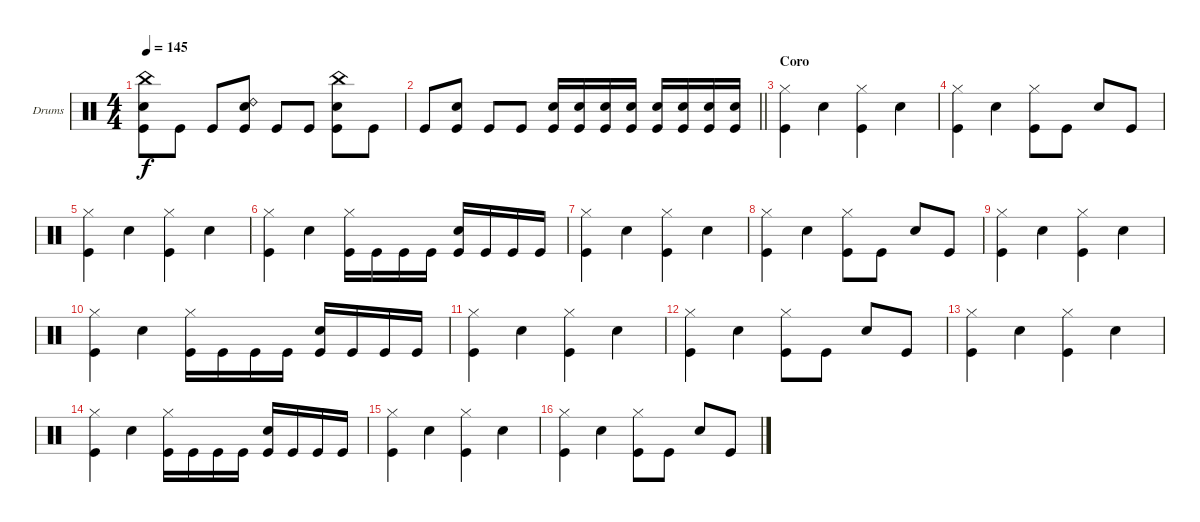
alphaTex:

\bracketExtendMode groupsimilarinstruments
\firstSystemTrackNameOrientation horizontal
\otherSystemsTrackNameOrientation horizontal
\track ("Drumkit" "Drums") {instrument percussion}
\staff {score}
\articulation defaults
\ts (4 4)
\tempo 145
\clef neutral
\ks c
("China (hit)" "Snare (hit) 2" "Kick (hit)").8{dy f} "Kick (hit)".8 "Kick (hit)".8 ("Ride (bell) 2" "Snare (hit) 2" "Kick (hit)").8 "Kick (hit)".8 "Kick (hit)".8 ("China (hit)" "Snare (hit) 2" "Kick (hit)").8 "Kick (hit)".8 |
\barLineRight lightlight "Kick (hit)".8
("Snare (hit) 2" "Kick (hit)").8 "Kick (hit)".8 "Kick (hit)".8 ("Snare (hit) 2" "Kick (hit)").16 ("Snare (hit) 2" "Kick (hit)").16 ("Snare (hit) 2" "Kick (hit)").16 ("Snare (hit) 2" "Kick (hit)").16 ("Snare (hit) 2" "Kick (hit)").16 ("Snare (hit) 2" "Kick (hit)").16 ("Snare (hit) 2" "Kick (hit)").16 ("Snare (hit) 2" "Kick (hit)").16 |
\section ("" "Coro")
("Hi-Hat (closed)" "Kick (hit)").4 "Snare (hit) 2".4 ("Hi-Hat (closed)" "Kick (hit)").4 "Snare (hit) 2".4 |
("Hi-Hat (closed)" "Kick (hit)").4 "Snare (hit) 2".4 ("Hi-Hat (closed)" "Kick (hit)").8 "Kick (hit)".8 "Snare (hit) 2".8 "Kick (hit)".8 |
("Hi-Hat (closed)" "Kick (hit)").4 "Snare (hit) 2".4 ("Hi-Hat (closed)" "Kick (hit)").4 "Snare (hit) 2".4 |
("Hi-Hat (closed)" "Kick (hit)").4 "Snare (hit) 2".4 ("Hi-Hat (closed)" "Kick (hit)").16 "Kick (hit)".16 "Kick (hit)".16 "Kick (hit)".16 ("Snare (hit) 2" "Kick (hit)").16 "Kick (hit)".16 "Kick (hit)".16 "Kick (hit)".16 |
("Hi-Hat (closed)" "Kick (hit)").4 "Snare (hit) 2".4 ("Hi-Hat (closed)" "Kick (hit)").4 "Snare (hit) 2".4 |
("Hi-Hat (closed)" "Kick (hit)").4 "Snare (hit) 2".4 ("Hi-Hat (closed)" "Kick (hit)").8 "Kick (hit)".8 "Snare (hit) 2".8 "Kick (hit)".8 |
("Hi-Hat (closed)" "Kick (hit)").4 "Snare (hit) 2".4 ("Hi-Hat (closed)" "Kick (hit)").4 "Snare (hit) 2".4 |
("Hi-Hat (closed)" "Kick (hit)").4 "Snare (hit) 2".4 ("Hi-Hat (closed)" "Kick (hit)").16 "Kick (hit)".16 "Kick (hit)".16 "Kick (hit)".16 ("Snare (hit) 2" "Kick (hit)").16 "Kick (hit)".16 "Kick (hit)".16 "Kick (hit)".16 |
("Hi-Hat (closed)" "Kick (hit)").4 "Snare (hit) 2".4 ("Hi-Hat (closed)" "Kick (hit)").4 "Snare (hit) 2".4 |
("Hi-Hat (closed)" "Kick (hit)").4 "Snare (hit) 2".4 ("Hi-Hat (closed)" "Kick (hit)").8 "Kick (hit)".8 "Snare (hit) 2".8 "Kick (hit)".8 |
("Hi-Hat (closed)" "Kick (hit)").4 "Snare (hit) 2".4 ("Hi-Hat (closed)" "Kick (hit)").4 "Snare (hit) 2".4 |
("Hi-Hat (closed)" "Kick (hit)").4 "Snare (hit) 2".4 ("Hi-Hat (closed)" "Kick (hit)").16 "Kick (hit)".16 "Kick (hit)".16 "Kick (hit)".16 ("Snare (hit) 2" "Kick (hit)").16 "Kick (hit)".16 "Kick (hit)".16 "Kick (hit)".16 |
("Hi-Hat (closed)" "Kick (hit)").4 "Snare (hit) 2".4 ("Hi-Hat (closed)" "Kick (hit)").4 "Snare (hit) 2".4 |
("Hi-Hat (closed)" "Kick (hit)").4 "Snare (hit) 2".4 ("Hi-Hat (closed)" "Kick (hit)").8 "Kick (hit)".8 "Snare (hit) 2".8 "Kick (hit)".8
